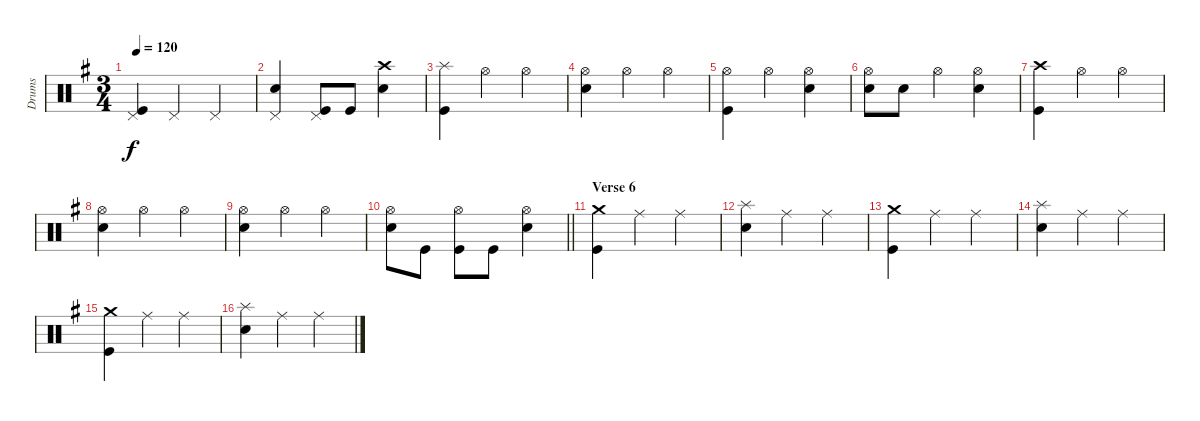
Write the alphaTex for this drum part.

\track ("Drums" "Drums") {instrument percussion}
\staff {score}
\articulation defaults
\ts (3 4)
\tempo 120
\clef neutral
\ks g
("Pedal Hi-Hat (hit)" "Kick (hit)").4{dy f} "Pedal Hi-Hat (hit)".4 "Pedal Hi-Hat (hit)".4 |
("Pedal Hi-Hat (hit)" "Snare (hit) 2").4 ("Pedal Hi-Hat (hit)" "Kick (hit)").8 "Kick (hit)".8 ("Crash high (hit)" "Snare (hit) 2").4 |
("Splash (hit)" "Kick (hit)").4 "Hi-Hat (open)".4 "Hi-Hat (open)".4 |
("Hi-Hat (open)" "Snare (hit) 2").4 "Hi-Hat (open)".4 "Hi-Hat (open)".4 |
("Hi-Hat (open)" "Kick (hit)").4 "Hi-Hat (open)".4 ("Hi-Hat (open)" "Snare (hit) 2").4 |
("Hi-Hat (open)" "Snare (hit) 2").8 "Snare (hit) 2".8 "Hi-Hat (open)".4 ("Hi-Hat (open)" "Snare (hit) 2").4 |
("Crash high (hit)" "Kick (hit)").4 "Hi-Hat (open)".4 "Hi-Hat (open)".4 |
("Hi-Hat (open)" "Snare (hit) 2").4 "Hi-Hat (open)".4 "Hi-Hat (open)".4 |
("Hi-Hat (open)" "Snare (hit) 2").4 "Hi-Hat (open)".4 "Hi-Hat (open)".4 |
\barLineRight lightlight
("Hi-Hat (open)" "Snare (hit) 2").8 "Kick (hit)".8 ("Hi-Hat (open)" "Kick (hit)").8 "Kick (hit)".8 ("Hi-Hat (open)" "Snare (hit) 2").4 |
\section ("" "Verse 6")
("Crash medium (hit)" "Kick (hit)").4 "Ride (middle)".4 "Ride (middle)".4 |
("Splash (hit)" "Snare (hit) 2").4 "Ride (middle)".4 "Ride (middle)".4 |
("Crash medium (hit)" "Kick (hit)").4 "Ride (middle)".4 "Ride (middle)".4 |
("Splash (hit)" "Snare (hit) 2").4 "Ride (middle)".4 "Ride (middle)".4 |
("Crash medium (hit)" "Kick (hit)").4 "Ride (middle)".4 "Ride (middle)".4 |
("Splash (hit)" "Snare (hit) 2").4 "Ride (middle)".4 "Ride (middle)".4
